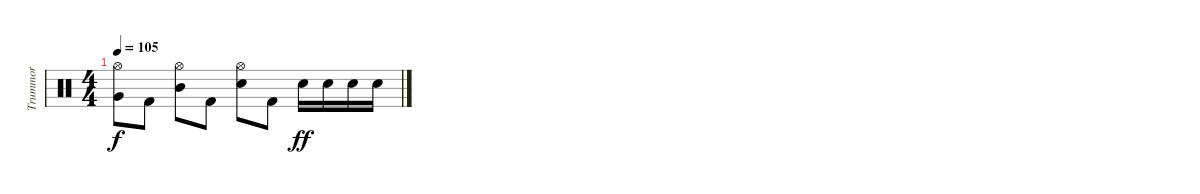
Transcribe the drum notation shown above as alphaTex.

\track ("Trummor" "Trummor") {instrument percussion}
\staff {score}
\articulation defaults
\ts (4 4)
\tempo 105
\clef neutral
\ks c
("Hi-Hat (open)" "Very Low Tom (hit)").8{dy f} "Kick (hit) 2".8 ("Hi-Hat (open)" "Mid Tom (hit)").8 "Kick (hit) 2".8 ("Hi-Hat (open)" "Snare (hit) 2").8 "Kick (hit) 2".8 "Snare (hit) 2".16{dy ff} "Snare (hit) 2".16 "Snare (hit) 2".16 "Snare (hit) 2".16
